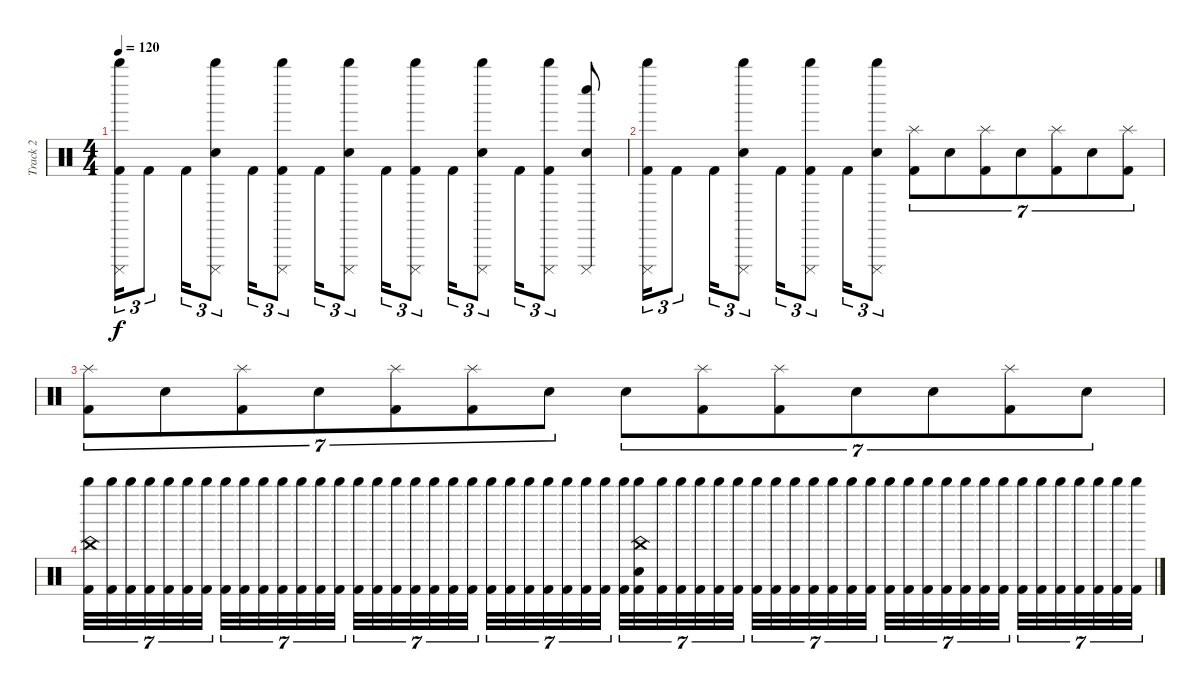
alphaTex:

\track ("Track 2" "Track 2") {instrument percussion}
\staff {score}
\articulation defaults
\ts (4 4)
\tempo 120
\clef neutral
\ks c
("Whistle high (hit)" "Cuica (mute)" "Kick (hit) 2").16{tu (3 2) dy f} "Kick (hit) 2".8{tu (3 2)} "Kick (hit) 2".16{tu (3 2)} ("Whistle high (hit)" "Cuica (mute)" "Electric Snare (hit)").8{tu (3 2)} "Kick (hit) 2".16{tu (3 2)} ("Whistle high (hit)" "Cuica (mute)" "Kick (hit) 2").8{tu (3 2)} "Kick (hit) 2".16{tu (3 2)} ("Whistle high (hit)" "Cuica (mute)" "Electric Snare (hit)").8{tu (3 2)} "Kick (hit) 2".16{tu (3 2)} ("Whistle high (hit)" "Cuica (mute)" "Kick (hit) 2").8{tu (3 2)} "Kick (hit) 2".16{tu (3 2)} ("Whistle high (hit)" "Cuica (mute)" "Electric Snare (hit)").8{tu (3 2)} "Kick (hit) 2".16{tu (3 2)} ("Whistle high (hit)" "Cuica (mute)" "Kick (hit) 2").8{tu (3 2)} ("Whistle low (hit)" "Cuica (mute)" "Electric Snare (hit)").8 |
("Whistle high (hit)" "Cuica (mute)" "Kick (hit) 2").16{tu (3 2)} "Kick (hit) 2".8{tu (3 2)} "Kick (hit) 2".16{tu (3 2)} ("Whistle high (hit)" "Cuica (mute)" "Electric Snare (hit)").8{tu (3 2)} "Kick (hit) 2".16{tu (3 2)} ("Whistle high (hit)" "Cuica (mute)" "Kick (hit) 2").8{tu (3 2)} "Kick (hit) 2".16{tu (3 2)} ("Whistle high (hit)" "Cuica (mute)" "Electric Snare (hit)").8{tu (3 2)} ("Splash (hit)" "Kick (hit) 2").8{tu (7 4)} "Electric Snare (hit)".8{tu (7 4)} ("Splash (hit)" "Kick (hit) 2").8{tu (7 4)} "Electric Snare (hit)".8{tu (7 4)} ("Splash (hit)" "Kick (hit) 2").8{tu (7 4)} "Electric Snare (hit)".8{tu (7 4)} ("Splash (hit)" "Kick (hit) 2").8{tu (7 4)} |
("Splash (hit)" "Kick (hit) 2").8{tu (7 4)} "Electric Snare (hit)".8{tu (7 4)} ("Splash (hit)" "Kick (hit) 2").8{tu (7 4)} "Electric Snare (hit)".8{tu (7 4)} ("Splash (hit)" "Kick (hit) 2").8{tu (7 4)} ("Splash (hit)" "Kick (hit) 2").8{tu (7 4)} "Electric Snare (hit)".8{tu (7 4)} "Electric Snare (hit)".8{tu (7 4)} ("Splash (hit)" "Kick (hit) 2").8{tu (7 4)} ("Splash (hit)" "Kick (hit) 2").8{tu (7 4)} "Electric Snare (hit)".8{tu (7 4)} "Electric Snare (hit)".8{tu (7 4)} ("Splash (hit)" "Kick (hit) 2").8{tu (7 4)} "Electric Snare (hit)".8{tu (7 4)} |
("China (hit)" "Whistle high (hit)" "Kick (hit) 2").32{tu (7 4)} ("Whistle high (hit)" "Kick (hit) 2").32{tu (7 4)} ("Whistle high (hit)" "Kick (hit) 2").32{tu (7 4)} ("Whistle high (hit)" "Kick (hit) 2").32{tu (7 4)} ("Whistle high (hit)" "Kick (hit) 2").32{tu (7 4)} ("Whistle high (hit)" "Kick (hit) 2").32{tu (7 4)} ("Whistle high (hit)" "Kick (hit) 2").32{tu (7 4) beam splitsecondary} ("Whistle high (hit)" "Kick (hit) 2").32{tu (7 4)} ("Whistle high (hit)" "Kick (hit) 2").32{tu (7 4)} ("Whistle high (hit)" "Kick (hit) 2").32{tu (7 4)} ("Whistle high (hit)" "Kick (hit) 2").32{tu (7 4)} ("Whistle high (hit)" "Kick (hit) 2").32{tu (7 4)} ("Whistle high (hit)" "Kick (hit) 2").32{tu (7 4)} ("Whistle high (hit)" "Kick (hit) 2").32{tu (7 4)} ("Whistle high (hit)" "Kick (hit) 2").32{tu (7 4)} ("Whistle high (hit)" "Kick (hit) 2").32{tu (7 4)} ("Whistle high (hit)" "Kick (hit) 2").32{tu (7 4)} ("Whistle high (hit)" "Kick (hit) 2").32{tu (7 4)} ("Whistle high (hit)" "Kick (hit) 2").32{tu (7 4)} ("Whistle high (hit)" "Kick (hit) 2").32{tu (7 4)} ("Whistle high (hit)" "Kick (hit) 2").32{tu (7 4) beam splitsecondary} ("Whistle high (hit)" "Kick (hit) 2").32{tu (7 4)} ("Whistle high (hit)" "Kick (hit) 2").32{tu (7 4)} ("Whistle high (hit)" "Kick (hit) 2").32{tu (7 4)} ("Whistle high (hit)" "Kick (hit) 2").32{tu (7 4)} ("Whistle high (hit)" "Kick (hit) 2").32{tu (7 4)} ("Whistle high (hit)" "Kick (hit) 2").32{tu (7 4)} ("Whistle high (hit)" "Kick (hit) 2").32{tu (7 4)} ("Whistle high (hit)" "Kick (hit) 2").32{tu (7 4)} ("China (hit)" "Whistle high (hit)" "Electric Snare (hit)" "Kick (hit) 2").32{tu (7 4)} ("Whistle high (hit)" "Kick (hit) 2").32{tu (7 4)} ("Whistle high (hit)" "Kick (hit) 2").32{tu (7 4)} ("Whistle high (hit)" "Kick (hit) 2").32{tu (7 4)} ("Whistle high (hit)" "Kick (hit) 2").32{tu (7 4)} ("Whistle high (hit)" "Kick (hit) 2").32{tu (7 4) beam splitsecondary} ("Whistle high (hit)" "Kick (hit) 2").32{tu (7 4)} ("Whistle high (hit)" "Kick (hit) 2").32{tu (7 4)} ("Whistle high (hit)" "Kick (hit) 2").32{tu (7 4)} ("Whistle high (hit)" "Kick (hit) 2").32{tu (7 4)} ("Whistle high (hit)" "Kick (hit) 2").32{tu (7 4)} ("Whistle high (hit)" "Kick (hit) 2").32{tu (7 4)} ("Whistle high (hit)" "Kick (hit) 2").32{tu (7 4)} ("Whistle high (hit)" "Kick (hit) 2").32{tu (7 4)} ("Whistle high (hit)" "Kick (hit) 2").32{tu (7 4)} ("Whistle high (hit)" "Kick (hit) 2").32{tu (7 4)} ("Whistle high (hit)" "Kick (hit) 2").32{tu (7 4)} ("Whistle high (hit)" "Kick (hit) 2").32{tu (7 4)} ("Whistle high (hit)" "Kick (hit) 2").32{tu (7 4)} ("Whistle high (hit)" "Kick (hit) 2").32{tu (7 4) beam splitsecondary} ("Whistle high (hit)" "Kick (hit) 2").32{tu (7 4)} ("Whistle high (hit)" "Kick (hit) 2").32{tu (7 4)} ("Whistle high (hit)" "Kick (hit) 2").32{tu (7 4)} ("Whistle high (hit)" "Kick (hit) 2").32{tu (7 4)} ("Whistle high (hit)" "Kick (hit) 2").32{tu (7 4)} ("Whistle high (hit)" "Kick (hit) 2").32{tu (7 4)} ("Whistle high (hit)" "Kick (hit) 2").32{tu (7 4)}
